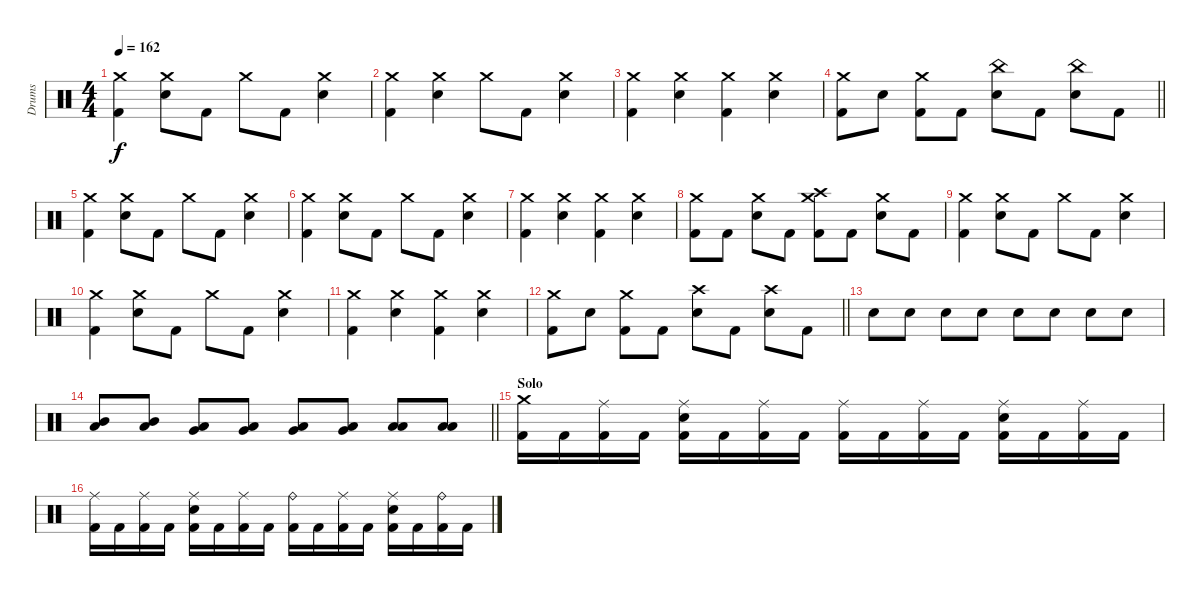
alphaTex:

\track ("Drums" "Drums") {instrument percussion}
\staff {score}
\articulation defaults
\ts (4 4)
\tempo 162
\clef neutral
\ks c
("Kick (hit) 2" "Crash medium (hit)").4{dy f} ("Snare (hit) 2" "Crash medium (hit)").8 "Kick (hit) 2".8 "Crash medium (hit)".8 "Kick (hit) 2".8 ("Snare (hit) 2" "Crash medium (hit)").4 |
("Kick (hit) 2" "Crash medium (hit)").4 ("Snare (hit) 2" "Crash medium (hit)").4 "Crash medium (hit)".8 "Kick (hit) 2".8 ("Snare (hit) 2" "Crash medium (hit)").4 |
("Kick (hit) 2" "Crash medium (hit)").4 ("Snare (hit) 2" "Crash medium (hit)").4 ("Kick (hit) 2" "Crash medium (hit)").4 ("Snare (hit) 2" "Crash medium (hit)").4 |
\barLineRight lightlight
("Kick (hit) 2" "Crash medium (hit)").8 "Snare (hit) 2".8 ("Kick (hit) 2" "Crash medium (hit)").8 "Kick (hit) 2".8 ("Snare (hit) 2" "China (hit)").8 "Kick (hit) 2".8 ("Snare (hit) 2" "China (hit)").8 "Kick (hit) 2".8 |
\section ("" "")
("Kick (hit) 2" "Crash medium (hit)").4 ("Snare (hit) 2" "Crash medium (hit)").8 "Kick (hit) 2".8 "Crash medium (hit)".8 "Kick (hit) 2".8 ("Snare (hit) 2" "Crash medium (hit)").4 |
("Kick (hit) 2" "Crash medium (hit)").4 ("Snare (hit) 2" "Crash medium (hit)").8 "Kick (hit) 2".8 "Crash medium (hit)".8 "Kick (hit) 2".8 ("Snare (hit) 2" "Crash medium (hit)").4 |
("Kick (hit) 2" "Crash medium (hit)").4 ("Snare (hit) 2" "Crash medium (hit)").4 ("Kick (hit) 2" "Crash medium (hit)").4 ("Snare (hit) 2" "Crash medium (hit)").4 |
("Kick (hit) 2" "Crash medium (hit)").8 "Kick (hit) 2".8 ("Snare (hit) 2" "Crash medium (hit)").8 "Kick (hit) 2".8 ("Kick (hit) 2" "Crash medium (hit)" "Crash high (hit)").8 "Kick (hit) 2".8 ("Snare (hit) 2" "Crash medium (hit)").8 "Kick (hit) 2".8 |
("Kick (hit) 2" "Crash medium (hit)").4 ("Snare (hit) 2" "Crash medium (hit)").8 "Kick (hit) 2".8 "Crash medium (hit)".8 "Kick (hit) 2".8 ("Snare (hit) 2" "Crash medium (hit)").4 |
("Kick (hit) 2" "Crash medium (hit)").4 ("Snare (hit) 2" "Crash medium (hit)").8 "Kick (hit) 2".8 "Crash medium (hit)".8 "Kick (hit) 2".8 ("Snare (hit) 2" "Crash medium (hit)").4 |
("Kick (hit) 2" "Crash medium (hit)").4 ("Snare (hit) 2" "Crash medium (hit)").4 ("Kick (hit) 2" "Crash medium (hit)").4 ("Snare (hit) 2" "Crash medium (hit)").4 |
\barLineRight lightlight
("Kick (hit) 2" "Crash medium (hit)").8 "Snare (hit) 2".8 ("Kick (hit) 2" "Crash medium (hit)").8 "Kick (hit) 2".8 ("Snare (hit) 2" "Crash high (hit)").8 "Kick (hit) 2".8 ("Snare (hit) 2" "Crash high (hit)").8 "Kick (hit) 2".8 |
\section ("" "")
"Snare (hit) 2".8 "Snare (hit) 2".8 "Snare (hit) 2".8 "Snare (hit) 2".8 "Snare (hit) 2".8 "Snare (hit) 2".8 "Snare (hit) 2".8 "Snare (hit) 2".8 |
\barLineRight lightlight
("Mid Tom (hit)" "Low Tom (hit)").8 ("Mid Tom (hit)" "Low Tom (hit)").8 ("Low Tom (hit)" "Very Low Tom (hit)").8 ("Low Tom (hit)" "Very Low Tom (hit)").8 ("Very Low Tom (hit)" "Low Floor Tom (hit)").8 ("Very Low Tom (hit)" "Low Floor Tom (hit)").8 ("Low Floor Tom (hit)" "Low Floor Tom (hit)").8 ("Low Floor Tom (hit)" "Low Floor Tom (hit)").8 |
\section ("" "Solo")
("Kick (hit) 2" "Crash medium (hit)").16 "Kick (hit) 2".16 ("Kick (hit) 2" "Ride (middle)").16 "Kick (hit) 2".16 ("Kick (hit) 2" "Snare (hit) 2" "Ride (middle)").16 "Kick (hit) 2".16 ("Kick (hit) 2" "Ride (middle)").16 "Kick (hit) 2".16 ("Kick (hit) 2" "Ride (middle)").16 "Kick (hit) 2".16 ("Kick (hit) 2" "Ride (middle)").16 "Kick (hit) 2".16 ("Kick (hit) 2" "Snare (hit) 2" "Ride (middle)").16 "Kick (hit) 2".16 ("Kick (hit) 2" "Ride (middle)").16 "Kick (hit) 2".16 |
("Kick (hit) 2" "Ride (middle)").16 "Kick (hit) 2".16 ("Kick (hit) 2" "Ride (middle)").16 "Kick (hit) 2".16 ("Kick (hit) 2" "Snare (hit) 2" "Ride (middle)").16 "Kick (hit) 2".16 ("Kick (hit) 2" "Ride (middle)").16 "Kick (hit) 2".16 ("Kick (hit) 2" "Ride (bell)").16 "Kick (hit) 2".16 ("Kick (hit) 2" "Ride (middle)").16 "Kick (hit) 2".16 ("Kick (hit) 2" "Snare (hit) 2" "Ride (middle)").16 "Kick (hit) 2".16 ("Kick (hit) 2" "Ride (bell)").16 "Kick (hit) 2".16
